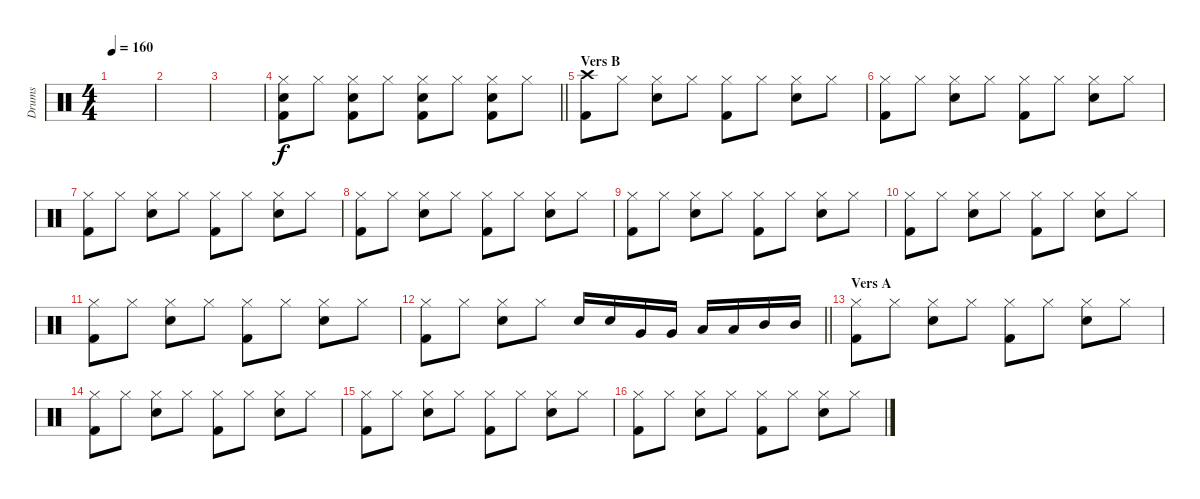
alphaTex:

\track ("Drums" "Drums") {instrument percussion}
\staff {score}
\articulation defaults
\ts (4 4)
\tempo 160
\clef neutral
\ks c
|
|
|
\barLineRight lightlight
("Hi-Hat (closed)" "Snare (hit) 2" "Kick (hit) 2").8 "Hi-Hat (closed)".8 ("Hi-Hat (closed)" "Snare (hit) 2" "Kick (hit) 2").8 "Hi-Hat (closed)".8 ("Hi-Hat (closed)" "Snare (hit) 2" "Kick (hit) 2").8 "Hi-Hat (closed)".8 ("Hi-Hat (closed)" "Snare (hit) 2" "Kick (hit) 2").8 "Hi-Hat (closed)".8 |
\section ("" "Vers B")
("Crash high (hit)" "Kick (hit) 2").8 "Hi-Hat (closed)".8 ("Hi-Hat (closed)" "Snare (hit) 2").8 "Hi-Hat (closed)".8 ("Hi-Hat (closed)" "Kick (hit) 2").8 "Hi-Hat (closed)".8 ("Hi-Hat (closed)" "Snare (hit) 2").8 "Hi-Hat (closed)".8 |
("Hi-Hat (closed)" "Kick (hit) 2").8 "Hi-Hat (closed)".8 ("Hi-Hat (closed)" "Snare (hit) 2").8 "Hi-Hat (closed)".8 ("Hi-Hat (closed)" "Kick (hit) 2").8 "Hi-Hat (closed)".8 ("Hi-Hat (closed)" "Snare (hit) 2").8 "Hi-Hat (closed)".8 |
("Hi-Hat (closed)" "Kick (hit) 2").8 "Hi-Hat (closed)".8 ("Hi-Hat (closed)" "Snare (hit) 2").8 "Hi-Hat (closed)".8 ("Hi-Hat (closed)" "Kick (hit) 2").8 "Hi-Hat (closed)".8 ("Hi-Hat (closed)" "Snare (hit) 2").8 "Hi-Hat (closed)".8 |
("Hi-Hat (closed)" "Kick (hit) 2").8 "Hi-Hat (closed)".8 ("Hi-Hat (closed)" "Snare (hit) 2").8 "Hi-Hat (closed)".8 ("Hi-Hat (closed)" "Kick (hit) 2").8 "Hi-Hat (closed)".8 ("Hi-Hat (closed)" "Snare (hit) 2").8 "Hi-Hat (closed)".8 |
("Hi-Hat (closed)" "Kick (hit) 2").8 "Hi-Hat (closed)".8 ("Hi-Hat (closed)" "Snare (hit) 2").8 "Hi-Hat (closed)".8 ("Hi-Hat (closed)" "Kick (hit) 2").8 "Hi-Hat (closed)".8 ("Hi-Hat (closed)" "Snare (hit) 2").8 "Hi-Hat (closed)".8 |
("Hi-Hat (closed)" "Kick (hit) 2").8 "Hi-Hat (closed)".8 ("Hi-Hat (closed)" "Snare (hit) 2").8 "Hi-Hat (closed)".8 ("Hi-Hat (closed)" "Kick (hit) 2").8 "Hi-Hat (closed)".8 ("Hi-Hat (closed)" "Snare (hit) 2").8 "Hi-Hat (closed)".8 |
("Hi-Hat (closed)" "Kick (hit) 2").8 "Hi-Hat (closed)".8 ("Hi-Hat (closed)" "Snare (hit) 2").8 "Hi-Hat (closed)".8 ("Hi-Hat (closed)" "Kick (hit) 2").8 "Hi-Hat (closed)".8 ("Hi-Hat (closed)" "Snare (hit) 2").8 "Hi-Hat (closed)".8 |
\barLineRight lightlight
("Hi-Hat (closed)" "Kick (hit) 2").8 "Hi-Hat (closed)".8 ("Hi-Hat (closed)" "Snare (hit) 2").8 "Hi-Hat (closed)".8 "Snare (hit) 2".16 "Snare (hit) 2".16 "Very Low Tom (hit)".16 "Very Low Tom (hit)".16 "Low Tom (hit)".16 "Low Tom (hit)".16 "Mid Tom (hit)".16 "Mid Tom (hit)".16 |
\section ("" "Vers A")
("Hi-Hat (closed)" "Kick (hit) 2").8 "Hi-Hat (closed)".8 ("Hi-Hat (closed)" "Snare (hit) 2").8 "Hi-Hat (closed)".8 ("Hi-Hat (closed)" "Kick (hit) 2").8 "Hi-Hat (closed)".8 ("Hi-Hat (closed)" "Snare (hit) 2").8 "Hi-Hat (closed)".8 |
("Hi-Hat (closed)" "Kick (hit) 2").8 "Hi-Hat (closed)".8 ("Hi-Hat (closed)" "Snare (hit) 2").8 "Hi-Hat (closed)".8 ("Hi-Hat (closed)" "Kick (hit) 2").8 "Hi-Hat (closed)".8 ("Hi-Hat (closed)" "Snare (hit) 2").8 "Hi-Hat (closed)".8 |
("Hi-Hat (closed)" "Kick (hit) 2").8 "Hi-Hat (closed)".8 ("Hi-Hat (closed)" "Snare (hit) 2").8 "Hi-Hat (closed)".8 ("Hi-Hat (closed)" "Kick (hit) 2").8 "Hi-Hat (closed)".8 ("Hi-Hat (closed)" "Snare (hit) 2").8 "Hi-Hat (closed)".8 |
("Hi-Hat (closed)" "Kick (hit) 2").8 "Hi-Hat (closed)".8 ("Hi-Hat (closed)" "Snare (hit) 2").8 "Hi-Hat (closed)".8 ("Hi-Hat (closed)" "Kick (hit) 2").8 "Hi-Hat (closed)".8 ("Hi-Hat (closed)" "Snare (hit) 2").8 "Hi-Hat (closed)".8
